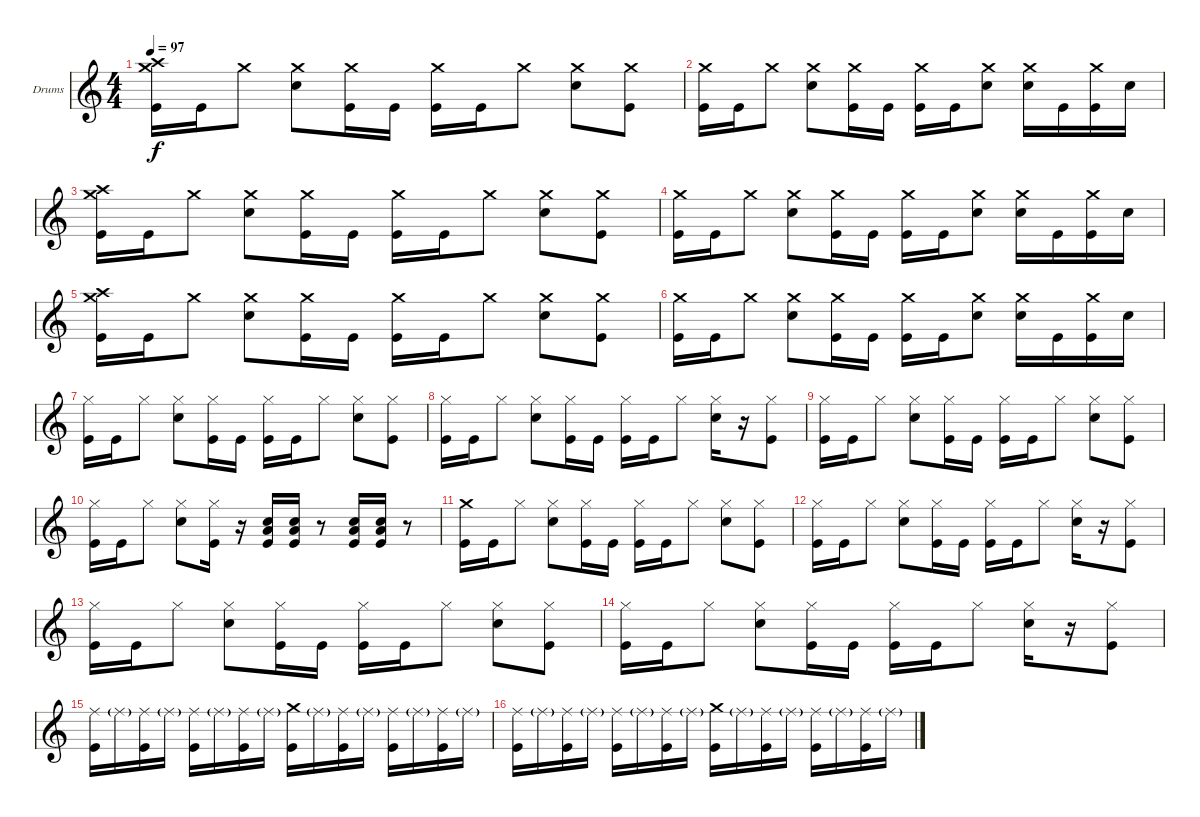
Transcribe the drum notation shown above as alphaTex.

\defaultSystemsLayout 4
\bracketExtendMode groupsimilarinstruments
\firstSystemTrackNameOrientation horizontal
\otherSystemsTrackNameOrientation horizontal
\track ("David Buckner" "Drums") {instrument percussion}
\staff {score}
\articulation defaults
\ts (4 4)
\tempo 97
\clef g2
\ks c
("Kick (hit)" "Crash high (hit)" "Crash medium (hit)").16{dy f} "Kick (hit)".16 "Crash medium (hit)".8 ("Snare (hit) 2" "Crash medium (hit)").8 ("Kick (hit)" "Crash medium (hit)").16 "Kick (hit)".16 ("Kick (hit)" "Crash medium (hit)").16 "Kick (hit)".16 "Crash medium (hit)".8 ("Snare (hit) 2" "Crash medium (hit)").8 ("Kick (hit)" "Crash medium (hit)").8 |
("Kick (hit)" "Crash medium (hit)").16 "Kick (hit)".16 "Crash medium (hit)".8 ("Snare (hit) 2" "Crash medium (hit)").8 ("Kick (hit)" "Crash medium (hit)").16 "Kick (hit)".16 ("Kick (hit)" "Crash medium (hit)").16 "Kick (hit)".16 ("Crash medium (hit)" "Snare (hit) 2").8 ("Snare (hit) 2" "Crash medium (hit)").16 "Kick (hit)".16 ("Kick (hit)" "Crash medium (hit)").16 "Snare (hit) 2".16 |
("Kick (hit)" "Crash high (hit)" "Crash medium (hit)").16 "Kick (hit)".16 "Crash medium (hit)".8 ("Snare (hit) 2" "Crash medium (hit)").8 ("Kick (hit)" "Crash medium (hit)").16 "Kick (hit)".16 ("Kick (hit)" "Crash medium (hit)").16 "Kick (hit)".16 "Crash medium (hit)".8 ("Snare (hit) 2" "Crash medium (hit)").8 ("Kick (hit)" "Crash medium (hit)").8 |
("Kick (hit)" "Crash medium (hit)").16 "Kick (hit)".16 "Crash medium (hit)".8 ("Snare (hit) 2" "Crash medium (hit)").8 ("Kick (hit)" "Crash medium (hit)").16 "Kick (hit)".16 ("Kick (hit)" "Crash medium (hit)").16 "Kick (hit)".16 ("Crash medium (hit)" "Snare (hit) 2").8 ("Snare (hit) 2" "Crash medium (hit)").16 "Kick (hit)".16 ("Kick (hit)" "Crash medium (hit)").16 "Snare (hit) 2".16 |
("Kick (hit)" "Crash high (hit)" "Crash medium (hit)").16 "Kick (hit)".16 "Crash medium (hit)".8 ("Snare (hit) 2" "Crash medium (hit)").8 ("Kick (hit)" "Crash medium (hit)").16 "Kick (hit)".16 ("Kick (hit)" "Crash medium (hit)").16 "Kick (hit)".16 "Crash medium (hit)".8 ("Snare (hit) 2" "Crash medium (hit)").8 ("Kick (hit)" "Crash medium (hit)").8 |
("Kick (hit)" "Crash medium (hit)").16 "Kick (hit)".16 "Crash medium (hit)".8 ("Snare (hit) 2" "Crash medium (hit)").8 ("Kick (hit)" "Crash medium (hit)").16 "Kick (hit)".16 ("Kick (hit)" "Crash medium (hit)").16 "Kick (hit)".16 ("Crash medium (hit)" "Snare (hit) 2").8 ("Snare (hit) 2" "Crash medium (hit)").16 "Kick (hit)".16 ("Kick (hit)" "Crash medium (hit)").16 "Snare (hit) 2".16 |
("Kick (hit)" "Hi-Hat (closed)").16 "Kick (hit)".16 "Hi-Hat (closed)".8 ("Snare (hit) 2" "Hi-Hat (closed)").8 ("Kick (hit)" "Hi-Hat (closed)").16 "Kick (hit)".16 ("Kick (hit)" "Hi-Hat (closed)").16 "Kick (hit)".16 "Hi-Hat (closed)".8 ("Snare (hit) 2" "Hi-Hat (closed)").8 ("Kick (hit)" "Hi-Hat (closed)").8 |
("Kick (hit)" "Hi-Hat (closed)").16 "Kick (hit)".16 "Hi-Hat (closed)".8 ("Snare (hit) 2" "Hi-Hat (closed)").8 ("Kick (hit)" "Hi-Hat (closed)").16 "Kick (hit)".16 ("Kick (hit)" "Hi-Hat (closed)").16 "Kick (hit)".16 "Hi-Hat (closed)".8 ("Hi-Hat (closed)" "Snare (hit) 2").16 r.16 ("Hi-Hat (closed)" "Kick (hit)").8 |
("Kick (hit)" "Hi-Hat (closed)").16 "Kick (hit)".16 "Hi-Hat (closed)".8 ("Snare (hit) 2" "Hi-Hat (closed)").8 ("Kick (hit)" "Hi-Hat (closed)").16 "Kick (hit)".16 ("Kick (hit)" "Hi-Hat (closed)").16 "Kick (hit)".16 "Hi-Hat (closed)".8 ("Snare (hit) 2" "Hi-Hat (closed)").8 ("Kick (hit)" "Hi-Hat (closed)").8 |
("Kick (hit)" "Hi-Hat (closed)").16 "Kick (hit)".16 "Hi-Hat (closed)".8 ("Snare (hit) 2" "Hi-Hat (closed)").8 ("Hi-Hat (closed)" "Kick (hit)").16 r.16 ("Kick (hit)" "Low Tom (hit)" "Snare (hit) 2").16 ("Kick (hit)" "Low Tom (hit)" "Snare (hit) 2").16 r.8 ("Kick (hit)" "Low Tom (hit)" "Snare (hit) 2").16 ("Kick (hit)" "Low Tom (hit)" "Snare (hit) 2").16 r.8 |
("Kick (hit)" "Crash medium (hit)").16 "Kick (hit)".16 "Hi-Hat (closed)".8 ("Snare (hit) 2" "Hi-Hat (closed)").8 ("Kick (hit)" "Hi-Hat (closed)").16 "Kick (hit)".16 ("Kick (hit)" "Hi-Hat (closed)").16 "Kick (hit)".16 "Hi-Hat (closed)".8 ("Snare (hit) 2" "Hi-Hat (closed)").8 ("Kick (hit)" "Hi-Hat (closed)").8 |
("Kick (hit)" "Hi-Hat (closed)").16 "Kick (hit)".16 "Hi-Hat (closed)".8 ("Snare (hit) 2" "Hi-Hat (closed)").8 ("Kick (hit)" "Hi-Hat (closed)").16 "Kick (hit)".16 ("Kick (hit)" "Hi-Hat (closed)").16 "Kick (hit)".16 "Hi-Hat (closed)".8 ("Hi-Hat (closed)" "Snare (hit) 2").16 r.16 ("Hi-Hat (closed)" "Kick (hit)").8 |
("Kick (hit)" "Hi-Hat (closed)").16 "Kick (hit)".16 "Hi-Hat (closed)".8 ("Snare (hit) 2" "Hi-Hat (closed)").8 ("Kick (hit)" "Hi-Hat (closed)").16 "Kick (hit)".16 ("Kick (hit)" "Hi-Hat (closed)").16 "Kick (hit)".16 "Hi-Hat (closed)".8 ("Snare (hit) 2" "Hi-Hat (closed)").8 ("Kick (hit)" "Hi-Hat (closed)").8 |
("Kick (hit)" "Hi-Hat (closed)").16 "Kick (hit)".16 "Hi-Hat (closed)".8 ("Snare (hit) 2" "Hi-Hat (closed)").8 ("Kick (hit)" "Hi-Hat (closed)").16 "Kick (hit)".16 ("Kick (hit)" "Hi-Hat (closed)").16 "Kick (hit)".16 "Hi-Hat (closed)".8 ("Hi-Hat (closed)" "Snare (hit) 2").16 r.16 ("Hi-Hat (closed)" "Kick (hit)").8 |
("Kick (hit)" "Ride (middle)").16 "Ride (middle)"{g}.16 ("Ride (middle)" "Kick (hit)").16 "Ride (middle)"{g}.16 ("Ride (middle)" "Kick (hit)").16 "Ride (middle)"{g}.16 ("Ride (middle)" "Kick (hit)").16 "Ride (middle)"{g}.16 ("Kick (hit)" "Crash medium (hit)").16 "Ride (middle)"{g}.16 ("Ride (middle)" "Kick (hit)").16 "Ride (middle)"{g}.16 ("Ride (middle)" "Kick (hit)").16 "Ride (middle)"{g}.16 ("Ride (middle)" "Kick (hit)").16 "Ride (middle)"{g}.16 |
("Kick (hit)" "Ride (middle)").16 "Ride (middle)"{g}.16 ("Ride (middle)" "Kick (hit)").16 "Ride (middle)"{g}.16 ("Ride (middle)" "Kick (hit)").16 "Ride (middle)"{g}.16 ("Ride (middle)" "Kick (hit)").16 "Ride (middle)"{g}.16 ("Kick (hit)" "Crash medium (hit)").16 "Ride (middle)"{g}.16 ("Ride (middle)" "Kick (hit)").16 "Ride (middle)"{g}.16 ("Ride (middle)" "Kick (hit)").16 "Ride (middle)"{g}.16 ("Ride (middle)" "Kick (hit)").16 "Ride (middle)"{g}.16
